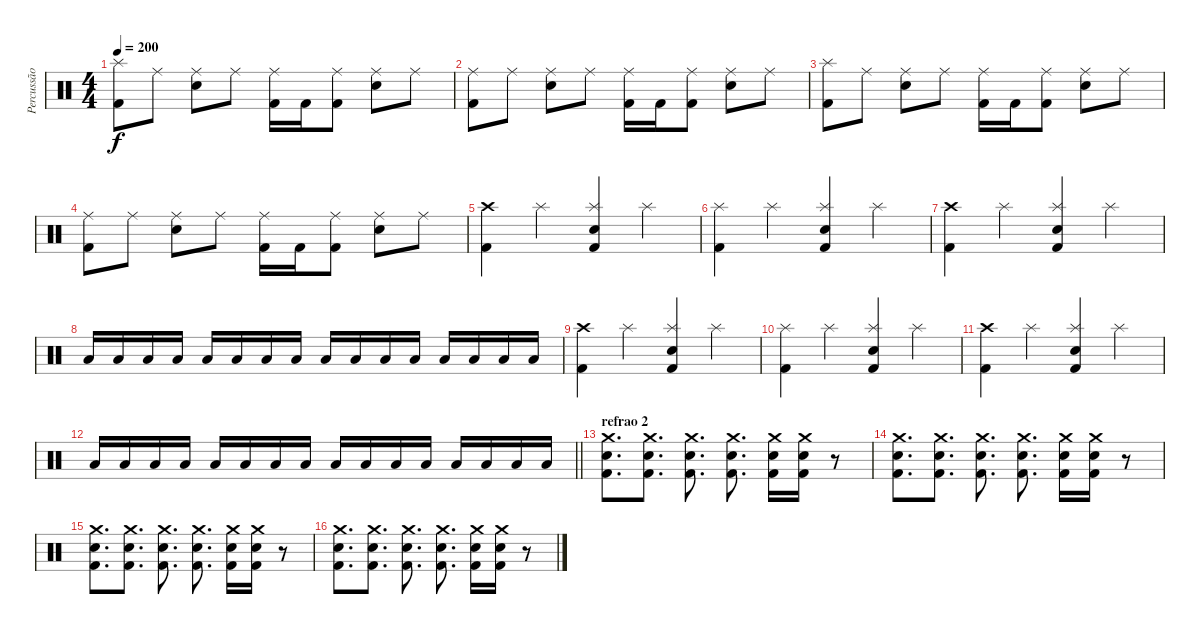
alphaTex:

\track ("Percussão" "Percussão") {instrument percussion}
\staff {score}
\articulation defaults
\ts (4 4)
\tempo 200
\clef neutral
\ks c
("Kick (hit) 2" "Splash (hit)").8{dy f} "Ride (middle)".8 ("Ride (middle)" "Snare (hit) 2").8 "Ride (middle)".8 ("Kick (hit) 2" "Ride (middle)").16 "Kick (hit) 2".16 ("Kick (hit) 2" "Ride (middle)").8 ("Ride (middle)" "Snare (hit) 2").8 "Ride (middle)".8 |
("Kick (hit) 2" "Ride (middle)").8 "Ride (middle)".8 ("Ride (middle)" "Snare (hit) 2").8 "Ride (middle)".8 ("Kick (hit) 2" "Ride (middle)").16 "Kick (hit) 2".16 ("Kick (hit) 2" "Ride (middle)").8 ("Ride (middle)" "Snare (hit) 2").8 "Ride (middle)".8 |
("Kick (hit) 2" "Splash (hit)").8 "Ride (middle)".8 ("Ride (middle)" "Snare (hit) 2").8 "Ride (middle)".8 ("Kick (hit) 2" "Ride (middle)").16 "Kick (hit) 2".16 ("Kick (hit) 2" "Ride (middle)").8 ("Ride (middle)" "Snare (hit) 2").8 "Ride (middle)".8 |
("Kick (hit) 2" "Ride (middle)").8 "Ride (middle)".8 ("Ride (middle)" "Snare (hit) 2").8 "Ride (middle)".8 ("Kick (hit) 2" "Ride (middle)").16 "Kick (hit) 2".16 ("Kick (hit) 2" "Ride (middle)").8 ("Ride (middle)" "Snare (hit) 2").8 "Ride (middle)".8 |
("Kick (hit) 2" "Crash high (hit)").4 "Splash (hit)".4 ("Kick (hit) 2" "Splash (hit)" "Snare (hit) 2").4 "Splash (hit)".4 |
("Kick (hit) 2" "Splash (hit)").4 "Splash (hit)".4 ("Kick (hit) 2" "Splash (hit)" "Snare (hit) 2").4 "Splash (hit)".4 |
("Kick (hit) 2" "Crash high (hit)").4 "Splash (hit)".4 ("Kick (hit) 2" "Splash (hit)" "Snare (hit) 2").4 "Splash (hit)".4 |
"Low Tom (hit)".16 "Low Tom (hit)".16 "Low Tom (hit)".16 "Low Tom (hit)".16 "Low Tom (hit)".16 "Low Tom (hit)".16 "Low Tom (hit)".16 "Low Tom (hit)".16 "Low Floor Tom (hit)".16 "Low Floor Tom (hit)".16 "Low Floor Tom (hit)".16 "Low Floor Tom (hit)".16 "Low Floor Tom (hit)".16 "Low Floor Tom (hit)".16 "Low Floor Tom (hit)".16 "Low Floor Tom (hit)".16 |
("Kick (hit) 2" "Crash high (hit)").4 "Splash (hit)".4 ("Kick (hit) 2" "Splash (hit)" "Snare (hit) 2").4 "Splash (hit)".4 |
("Kick (hit) 2" "Splash (hit)").4 "Splash (hit)".4 ("Kick (hit) 2" "Splash (hit)" "Snare (hit) 2").4 "Splash (hit)".4 |
("Kick (hit) 2" "Crash high (hit)").4 "Splash (hit)".4 ("Kick (hit) 2" "Splash (hit)" "Snare (hit) 2").4 "Splash (hit)".4 |
\barLineRight lightlight "Low Tom (hit)".16 "Low Tom (hit)".16 "Low Tom (hit)".16 "Low Tom (hit)".16 "Low Tom (hit)".16 "Low Tom (hit)".16 "Low Tom (hit)".16 "Low Tom (hit)".16 "Low Floor Tom (hit)".16 "Low Floor Tom (hit)".16 "Low Floor Tom (hit)".16 "Low Floor Tom (hit)".16 "Low Floor Tom (hit)".16 "Low Floor Tom (hit)".16 "Low Floor Tom (hit)".16 "Low Floor Tom (hit)".16
|
\section ("" "refrao 2")
("Kick (hit) 2" "Crash medium (hit)" "Snare (hit) 2").8{d} ("Kick (hit) 2" "Crash medium (hit)" "Snare (hit) 2").8{d} ("Kick (hit) 2" "Crash medium (hit)" "Snare (hit) 2").8{d} ("Kick (hit) 2" "Crash medium (hit)" "Snare (hit) 2").8{d} ("Kick (hit) 2" "Crash medium (hit)" "Snare (hit) 2").16 ("Kick (hit) 2" "Crash medium (hit)" "Snare (hit) 2").16 r.8 |
("Kick (hit) 2" "Crash medium (hit)" "Snare (hit) 2").8{d} ("Kick (hit) 2" "Crash medium (hit)" "Snare (hit) 2").8{d} ("Kick (hit) 2" "Crash medium (hit)" "Snare (hit) 2").8{d} ("Kick (hit) 2" "Crash medium (hit)" "Snare (hit) 2").8{d} ("Kick (hit) 2" "Crash medium (hit)" "Snare (hit) 2").16 ("Kick (hit) 2" "Crash medium (hit)" "Snare (hit) 2").16 r.8 |
("Kick (hit) 2" "Crash medium (hit)" "Snare (hit) 2").8{d} ("Kick (hit) 2" "Crash medium (hit)" "Snare (hit) 2").8{d} ("Kick (hit) 2" "Crash medium (hit)" "Snare (hit) 2").8{d} ("Kick (hit) 2" "Crash medium (hit)" "Snare (hit) 2").8{d} ("Kick (hit) 2" "Crash medium (hit)" "Snare (hit) 2").16 ("Kick (hit) 2" "Crash medium (hit)" "Snare (hit) 2").16 r.8 |
("Kick (hit) 2" "Crash medium (hit)" "Snare (hit) 2").8{d} ("Kick (hit) 2" "Crash medium (hit)" "Snare (hit) 2").8{d} ("Kick (hit) 2" "Crash medium (hit)" "Snare (hit) 2").8{d} ("Kick (hit) 2" "Crash medium (hit)" "Snare (hit) 2").8{d} ("Kick (hit) 2" "Crash medium (hit)" "Snare (hit) 2").16 ("Kick (hit) 2" "Crash medium (hit)" "Snare (hit) 2").16 r.8
